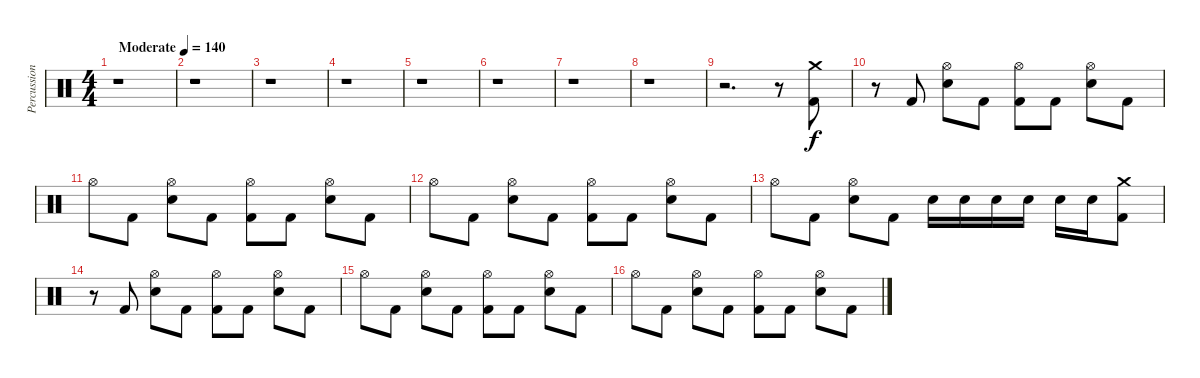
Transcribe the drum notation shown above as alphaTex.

\track ("Percussion" "Percussion") {instrument percussion}
\staff {score}
\articulation defaults
\ts (4 4)
\tempo (140 "Moderate")
\clef neutral
\ks c
r.1{dy f} |
r.1 |
r.1 |
r.1 |
r.1 |
r.1 |
r.1 |
r.1 |
r.2{d} r.8 ("Crash medium (hit)" "Kick (hit) 2").8 |
r.8 "Kick (hit) 2".8 ("Hi-Hat (open)" "Electric Snare (hit)").8 "Kick (hit) 2".8 ("Hi-Hat (open)" "Kick (hit) 2").8 "Kick (hit) 2".8 ("Hi-Hat (open)" "Electric Snare (hit)").8 "Kick (hit) 2".8 |
"Hi-Hat (open)".8 "Kick (hit) 2".8 ("Hi-Hat (open)" "Electric Snare (hit)").8 "Kick (hit) 2".8 ("Hi-Hat (open)" "Kick (hit) 2").8 "Kick (hit) 2".8 ("Hi-Hat (open)" "Electric Snare (hit)").8 "Kick (hit) 2".8 |
"Hi-Hat (open)".8 "Kick (hit) 2".8 ("Hi-Hat (open)" "Electric Snare (hit)").8 "Kick (hit) 2".8 ("Hi-Hat (open)" "Kick (hit) 2").8 "Kick (hit) 2".8 ("Hi-Hat (open)" "Electric Snare (hit)").8 "Kick (hit) 2".8 |
"Hi-Hat (open)".8 "Kick (hit) 2".8 ("Hi-Hat (open)" "Electric Snare (hit)").8 "Kick (hit) 2".8 "Electric Snare (hit)".16 "Electric Snare (hit)".16 "Electric Snare (hit)".16 "Electric Snare (hit)".16 "Electric Snare (hit)".16 "Electric Snare (hit)".16 ("Crash medium (hit)" "Kick (hit) 2").8 |
r.8 "Kick (hit) 2".8 ("Hi-Hat (open)" "Electric Snare (hit)").8 "Kick (hit) 2".8 ("Hi-Hat (open)" "Kick (hit) 2").8 "Kick (hit) 2".8 ("Hi-Hat (open)" "Electric Snare (hit)").8 "Kick (hit) 2".8 |
"Hi-Hat (open)".8 "Kick (hit) 2".8 ("Hi-Hat (open)" "Electric Snare (hit)").8 "Kick (hit) 2".8 ("Hi-Hat (open)" "Kick (hit) 2").8 "Kick (hit) 2".8 ("Hi-Hat (open)" "Electric Snare (hit)").8 "Kick (hit) 2".8 |
"Hi-Hat (open)".8 "Kick (hit) 2".8 ("Hi-Hat (open)" "Electric Snare (hit)").8 "Kick (hit) 2".8 ("Hi-Hat (open)" "Kick (hit) 2").8 "Kick (hit) 2".8 ("Hi-Hat (open)" "Electric Snare (hit)").8 "Kick (hit) 2".8
